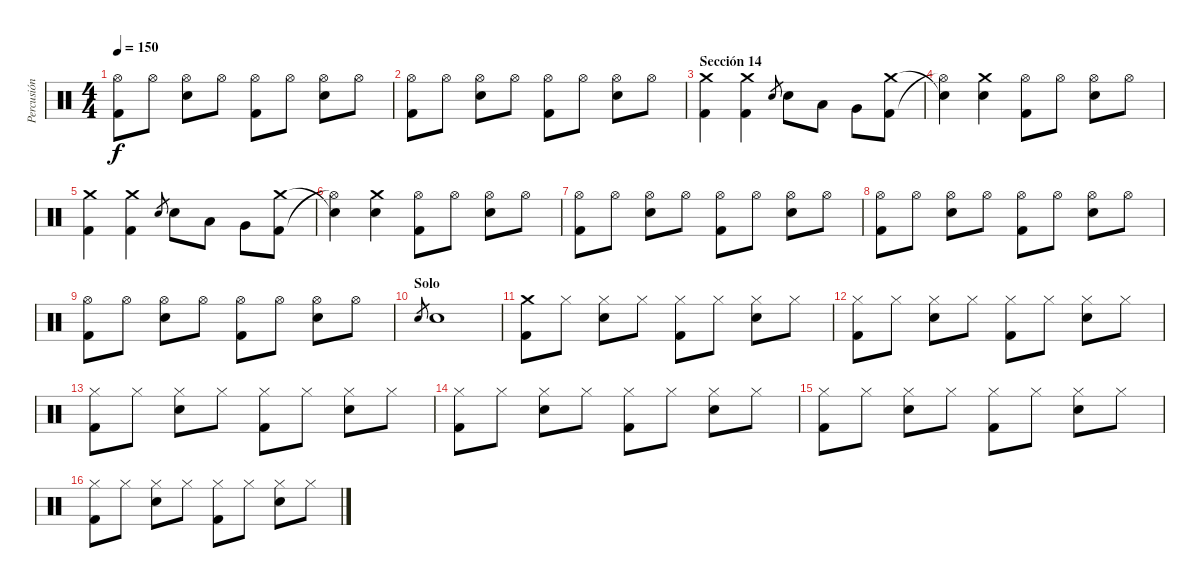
\track ("Percusión" "Percusión") {instrument percussion}
\staff {score}
\articulation defaults
\ts (4 4)
\tempo 150
\clef neutral
\ks c
("Hi-Hat (open)" "Kick (hit) 2").8{dy f} "Hi-Hat (open)".8 ("Hi-Hat (open)" "Snare (hit) 2").8 "Hi-Hat (open)".8 ("Hi-Hat (open)" "Kick (hit) 2").8 "Hi-Hat (open)".8 ("Hi-Hat (open)" "Snare (hit) 2").8 "Hi-Hat (open)".8 |
("Hi-Hat (open)" "Kick (hit) 2").8 "Hi-Hat (open)".8 ("Hi-Hat (open)" "Snare (hit) 2").8 "Hi-Hat (open)".8 ("Hi-Hat (open)" "Kick (hit) 2").8 "Hi-Hat (open)".8 ("Hi-Hat (open)" "Snare (hit) 2").8 "Hi-Hat (open)".8 |
\section ("" "Sección 14")
("Crash medium (hit)" "Kick (hit) 2").4 ("Crash medium (hit)" "Kick (hit) 2").4 "Snare (hit) 2".8{gr} "Snare (hit) 2".8 "Low Tom (hit)".8 "Very Low Tom (hit)".8 ("Kick (hit) 2" "Crash medium (hit)").8 |
("Hi-Hat (open)"{t} "Snare (hit)"{t}).4 ("Crash medium (hit)" "Snare (hit) 2").4 ("Hi-Hat (open)" "Kick (hit) 2").8 "Hi-Hat (open)".8 ("Hi-Hat (open)" "Snare (hit) 2").8 "Hi-Hat (open)".8 |
("Crash medium (hit)" "Kick (hit) 2").4 ("Crash medium (hit)" "Kick (hit) 2").4 "Snare (hit) 2".8{gr} "Snare (hit) 2".8 "Low Tom (hit)".8 "Very Low Tom (hit)".8 ("Kick (hit) 2" "Crash medium (hit)").8 |
("Hi-Hat (open)"{t} "Snare (hit)"{t}).4 ("Crash medium (hit)" "Snare (hit) 2").4 ("Hi-Hat (open)" "Kick (hit) 2").8 "Hi-Hat (open)".8 ("Hi-Hat (open)" "Snare (hit) 2").8 "Hi-Hat (open)".8 |
("Hi-Hat (open)" "Kick (hit) 2").8 "Hi-Hat (open)".8 ("Hi-Hat (open)" "Snare (hit) 2").8 "Hi-Hat (open)".8 ("Hi-Hat (open)" "Kick (hit) 2").8 "Hi-Hat (open)".8 ("Hi-Hat (open)" "Snare (hit) 2").8 "Hi-Hat (open)".8 |
("Hi-Hat (open)" "Kick (hit) 2").8 "Hi-Hat (open)".8 ("Hi-Hat (open)" "Snare (hit) 2").8 "Hi-Hat (open)".8 ("Hi-Hat (open)" "Kick (hit) 2").8 "Hi-Hat (open)".8 ("Hi-Hat (open)" "Snare (hit) 2").8 "Hi-Hat (open)".8 |
("Hi-Hat (open)" "Kick (hit) 2").8 "Hi-Hat (open)".8 ("Hi-Hat (open)" "Snare (hit) 2").8 "Hi-Hat (open)".8 ("Hi-Hat (open)" "Kick (hit) 2").8 "Hi-Hat (open)".8 ("Hi-Hat (open)" "Snare (hit) 2").8 "Hi-Hat (open)".8 |
\section ("" "Solo")
"Snare (hit) 2".8{gr} "Snare (hit) 2".1 |
("Crash medium (hit)" "Kick (hit) 2").8 "Hi-Hat (closed)".8 ("Hi-Hat (closed)" "Snare (hit) 2").8 "Hi-Hat (closed)".8 ("Hi-Hat (closed)" "Kick (hit) 2").8 "Hi-Hat (closed)".8 ("Hi-Hat (closed)" "Snare (hit) 2").8 "Hi-Hat (closed)".8 |
("Hi-Hat (closed)" "Kick (hit) 2").8 "Hi-Hat (closed)".8 ("Hi-Hat (closed)" "Snare (hit) 2").8 "Hi-Hat (closed)".8 ("Hi-Hat (closed)" "Kick (hit) 2").8 "Hi-Hat (closed)".8 ("Hi-Hat (closed)" "Snare (hit) 2").8 "Hi-Hat (closed)".8 |
("Hi-Hat (closed)" "Kick (hit) 2").8 "Hi-Hat (closed)".8 ("Hi-Hat (closed)" "Snare (hit) 2").8 "Hi-Hat (closed)".8 ("Hi-Hat (closed)" "Kick (hit) 2").8 "Hi-Hat (closed)".8 ("Hi-Hat (closed)" "Snare (hit) 2").8 "Hi-Hat (closed)".8 |
("Hi-Hat (closed)" "Kick (hit) 2").8 "Hi-Hat (closed)".8 ("Hi-Hat (closed)" "Snare (hit) 2").8 "Hi-Hat (closed)".8 ("Hi-Hat (closed)" "Kick (hit) 2").8 "Hi-Hat (closed)".8 ("Hi-Hat (closed)" "Snare (hit) 2").8 "Hi-Hat (closed)".8 |
("Hi-Hat (closed)" "Kick (hit) 2").8 "Hi-Hat (closed)".8 ("Hi-Hat (closed)" "Snare (hit) 2").8 "Hi-Hat (closed)".8 ("Hi-Hat (closed)" "Kick (hit) 2").8 "Hi-Hat (closed)".8 ("Hi-Hat (closed)" "Snare (hit) 2").8 "Hi-Hat (closed)".8 |
("Hi-Hat (closed)" "Kick (hit) 2").8 "Hi-Hat (closed)".8 ("Hi-Hat (closed)" "Snare (hit) 2").8 "Hi-Hat (closed)".8 ("Hi-Hat (closed)" "Kick (hit) 2").8 "Hi-Hat (closed)".8 ("Hi-Hat (closed)" "Snare (hit) 2").8 "Hi-Hat (closed)".8
